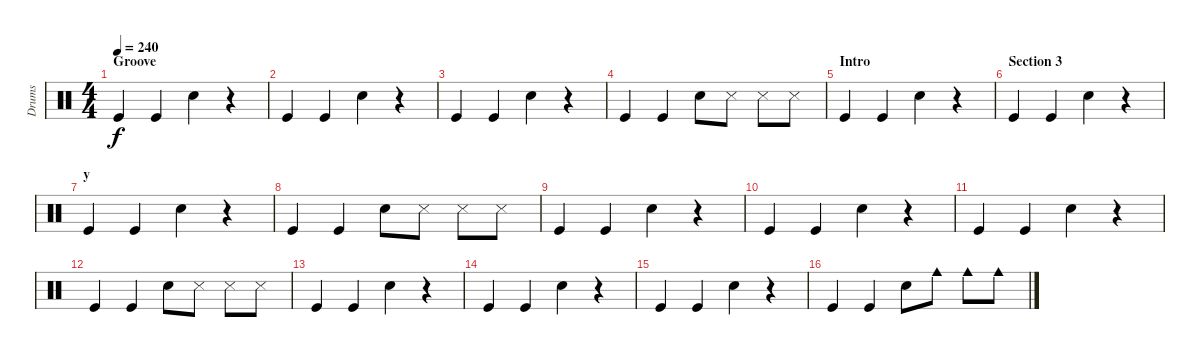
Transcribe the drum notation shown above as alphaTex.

\track ("Drums" "Drums") {instrument percussion}
\staff {score}
\articulation defaults
\ts (4 4)
\section ("" "Groove")
\tempo 240
\clef neutral
\ks c "Kick (hit)".4{dy f} "Kick (hit)".4 "Snare (hit) 2".4
r.4 |
"Kick (hit)".4 "Kick (hit)".4 "Snare (hit) 2".4 r.4 |
"Kick (hit)".4 "Kick (hit)".4 "Snare (hit) 2".4 r.4 |
"Kick (hit)".4 "Kick (hit)".4 "Snare (hit) 2".8 "Snare (side stick) 3".8 "Snare (side stick) 3".8 "Snare (side stick) 3".8 |
\section ("" "Intro")
"Kick (hit)".4 "Kick (hit)".4 "Snare (hit) 2".4 r.4 |
\section ("" "Section 3")
"Kick (hit)".4 "Kick (hit)".4 "Snare (hit) 2".4 r.4 |
\section ("" "y")
"Kick (hit)".4 "Kick (hit)".4 "Snare (hit) 2".4 r.4 |
"Kick (hit)".4 "Kick (hit)".4 "Snare (hit) 2".8 "Snare (side stick) 3".8 "Snare (side stick) 3".8 "Snare (side stick) 3".8 |
"Kick (hit)".4 "Kick (hit)".4 "Snare (hit) 2".4 r.4 |
"Kick (hit)".4 "Kick (hit)".4 "Snare (hit) 2".4 r.4 |
"Kick (hit)".4 "Kick (hit)".4 "Snare (hit) 2".4 r.4 |
"Kick (hit)".4 "Kick (hit)".4 "Snare (hit) 2".8 "Snare (side stick) 3".8 "Snare (side stick) 3".8 "Snare (side stick) 3".8 |
"Kick (hit)".4 "Kick (hit)".4 "Snare (hit) 2".4 r.4 |
"Kick (hit)".4 "Kick (hit)".4 "Snare (hit) 2".4 r.4 |
"Kick (hit)".4 "Kick (hit)".4 "Snare (hit) 2".4 r.4 |
"Kick (hit)".4 "Kick (hit)".4 "Snare (hit) 2".8 "Cowbell medium (hit)".8 "Cowbell medium (hit)".8 "Cowbell medium (hit)".8
